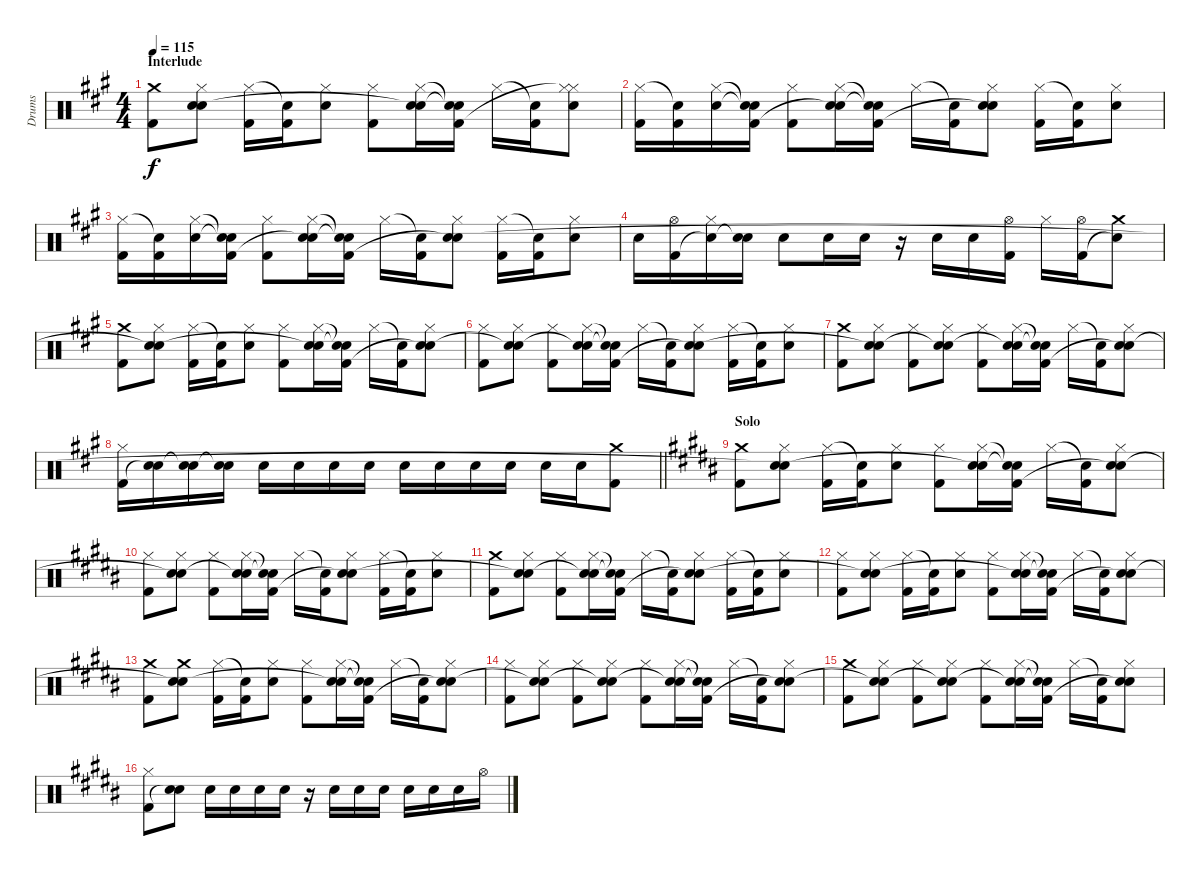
\track ("Drums" "Drums") {instrument percussion}
\staff {score}
\articulation defaults
\ts (4 4)
\section ("" "Interlude")
\tempo 115
\clef neutral
\ks a
("Crash medium (hit)" "Kick (hit) 2").8{dy f} ("Hi-Hat (closed)" "Electric Snare (hit)" "Snare (hit)"{t}).8 ("Hi-Hat (closed)" "Kick (hit) 2").16 ("Snare (hit)"{t} "Kick (hit) 2").16 ("Hi-Hat (closed)" "Electric Snare (hit)").8 ("Hi-Hat (closed)" "Kick (hit) 2").8 ("Hi-Hat (closed)" "Electric Snare (hit)" "Snare (hit)"{t}).16 ("Snare (hit)"{t} "Snare (hit)"{t} "Kick (hit) 2").16 "Hi-Hat (closed)".16 ("Snare (hit)"{t} "Kick (hit) 2").16 ("Hi-Hat (closed)" "Electric Snare (hit)" "Hi-Hat (closed)"{t}).8 |
("Hi-Hat (closed)" "Kick (hit) 2").16 ("Snare (hit)"{t} "Kick (hit) 2").16 ("Hi-Hat (closed)" "Electric Snare (hit)").16 ("Snare (hit)"{t} "Snare (hit)"{t} "Kick (hit) 2").16 ("Hi-Hat (closed)" "Kick (hit) 2").8 ("Hi-Hat (closed)" "Electric Snare (hit)" "Snare (hit)"{t}).16 ("Snare (hit)"{t} "Snare (hit)"{t} "Kick (hit) 2").16 "Hi-Hat (closed)".16 ("Snare (hit)"{t} "Kick (hit) 2").16 ("Hi-Hat (closed)" "Electric Snare (hit)" "Snare (hit)"{t}).8 ("Hi-Hat (closed)" "Kick (hit) 2").16 ("Snare (hit)"{t} "Kick (hit) 2").16 ("Hi-Hat (closed)" "Electric Snare (hit)").8 |
("Hi-Hat (closed)" "Kick (hit) 2").16 ("Snare (hit)"{t} "Kick (hit) 2").16 ("Hi-Hat (closed)" "Electric Snare (hit)").16 ("Snare (hit)"{t} "Snare (hit)"{t} "Kick (hit) 2").16 ("Hi-Hat (closed)" "Kick (hit) 2").8 ("Hi-Hat (closed)" "Electric Snare (hit)" "Snare (hit)"{t}).16 ("Snare (hit)"{t} "Snare (hit)"{t} "Kick (hit) 2").16 "Hi-Hat (closed)".16 ("Snare (hit)"{t} "Kick (hit) 2").16 ("Hi-Hat (closed)" "Electric Snare (hit)" "Snare (hit)"{t}).8 ("Hi-Hat (closed)" "Kick (hit) 2").16 ("Snare (hit)"{t} "Kick (hit) 2").16 ("Hi-Hat (closed)" "Electric Snare (hit)").8 |
"Electric Snare (hit)".16 ("Hi-Hat (open)" "Kick (hit) 2").16 ("Hi-Hat (closed)" "Snare (hit)"{t}).16 ("Electric Snare (hit)" "Snare (hit)"{t}).16 "Electric Snare (hit)".8 "Electric Snare (hit)".16 "Electric Snare (hit)".16 r.16 "Electric Snare (hit)".16 "Electric Snare (hit)".16 ("Hi-Hat (open)" "Kick (hit) 2").16 "Hi-Hat (closed)".16 ("Hi-Hat (open)" "Kick (hit) 2").16 ("Crash medium (hit)" "Snare (hit)"{t}).8 |
("Crash medium (hit)" "Kick (hit) 2").8 ("Hi-Hat (closed)" "Electric Snare (hit)" "Snare (hit)"{t}).8 ("Hi-Hat (closed)" "Kick (hit) 2").16 ("Snare (hit)"{t} "Kick (hit) 2").16 ("Hi-Hat (closed)" "Electric Snare (hit)").8 ("Hi-Hat (closed)" "Kick (hit) 2").8 ("Hi-Hat (closed)" "Electric Snare (hit)" "Snare (hit)"{t}).16 ("Snare (hit)"{t} "Snare (hit)"{t} "Kick (hit) 2").16 "Hi-Hat (closed)".16 ("Snare (hit)"{t} "Kick (hit) 2").16 ("Hi-Hat (closed)" "Electric Snare (hit)" "Snare (hit)"{t}).8 |
("Hi-Hat (closed)" "Kick (hit) 2").8 ("Hi-Hat (closed)" "Electric Snare (hit)" "Snare (hit)"{t}).8 ("Hi-Hat (closed)" "Kick (hit) 2").8 ("Hi-Hat (closed)" "Electric Snare (hit)" "Snare (hit)"{t}).16 ("Snare (hit)"{t} "Snare (hit)"{t} "Kick (hit) 2").16 "Hi-Hat (closed)".16 ("Snare (hit)"{t} "Kick (hit) 2").16 ("Hi-Hat (closed)" "Electric Snare (hit)" "Snare (hit)"{t}).8 ("Hi-Hat (closed)" "Kick (hit) 2").16 ("Snare (hit)"{t} "Kick (hit) 2").16 ("Hi-Hat (closed)" "Electric Snare (hit)").8 |
("Crash medium (hit)" "Kick (hit) 2").8 ("Hi-Hat (closed)" "Electric Snare (hit)" "Snare (hit)"{t}).8 ("Hi-Hat (closed)" "Kick (hit) 2").8 ("Hi-Hat (closed)" "Electric Snare (hit)" "Snare (hit)"{t}).8 ("Hi-Hat (closed)" "Kick (hit) 2").8 ("Hi-Hat (closed)" "Electric Snare (hit)" "Snare (hit)"{t}).16 ("Snare (hit)"{t} "Snare (hit)"{t} "Kick (hit) 2").16 "Hi-Hat (closed)".16 ("Snare (hit)"{t} "Kick (hit) 2").16 ("Hi-Hat (closed)" "Electric Snare (hit)" "Snare (hit)"{t}).8 |
\barLineRight lightlight
("Hi-Hat (closed)" "Kick (hit) 2").16 ("Electric Snare (hit)" "Snare (hit)"{t}).16 ("Electric Snare (hit)" "Snare (hit)"{t}).16 ("Electric Snare (hit)" "Snare (hit)"{t}).16 "Electric Snare (hit)".16 "Electric Snare (hit)".16 "Electric Snare (hit)".16 "Electric Snare (hit)".16 "Electric Snare (hit)".16 "Electric Snare (hit)".16 "Electric Snare (hit)".16 "Electric Snare (hit)".16 "Electric Snare (hit)".16 "Electric Snare (hit)".16 ("Crash medium (hit)" "Kick (hit) 2").8 |
\section ("" "Solo")
\ks b
("Crash medium (hit)" "Kick (hit) 2").8 ("Hi-Hat (closed)" "Electric Snare (hit)" "Snare (hit)"{t}).8 ("Hi-Hat (closed)" "Kick (hit) 2").16 ("Snare (hit)"{t} "Kick (hit) 2").16 ("Hi-Hat (closed)" "Electric Snare (hit)").8 ("Hi-Hat (closed)" "Kick (hit) 2").8 ("Hi-Hat (closed)" "Electric Snare (hit)" "Snare (hit)"{t}).16 ("Snare (hit)"{t} "Snare (hit)"{t} "Kick (hit) 2").16 "Hi-Hat (closed)".16 ("Snare (hit)"{t} "Kick (hit) 2").16 ("Hi-Hat (closed)" "Electric Snare (hit)" "Snare (hit)"{t}).8 |
("Hi-Hat (closed)" "Kick (hit) 2").8 ("Hi-Hat (closed)" "Electric Snare (hit)" "Snare (hit)"{t}).8 ("Hi-Hat (closed)" "Kick (hit) 2").8 ("Hi-Hat (closed)" "Electric Snare (hit)" "Snare (hit)"{t}).16 ("Snare (hit)"{t} "Snare (hit)"{t} "Kick (hit) 2").16 "Hi-Hat (closed)".16 ("Snare (hit)"{t} "Kick (hit) 2").16 ("Hi-Hat (closed)" "Electric Snare (hit)" "Snare (hit)"{t}).8 ("Hi-Hat (closed)" "Kick (hit) 2").16 ("Snare (hit)"{t} "Kick (hit) 2").16 ("Hi-Hat (closed)" "Electric Snare (hit)").8 |
("Crash medium (hit)" "Kick (hit) 2").8 ("Hi-Hat (closed)" "Electric Snare (hit)" "Snare (hit)"{t}).8 ("Hi-Hat (closed)" "Kick (hit) 2").8 ("Hi-Hat (closed)" "Electric Snare (hit)" "Snare (hit)"{t}).16 ("Snare (hit)"{t} "Snare (hit)"{t} "Kick (hit) 2").16 "Hi-Hat (closed)".16 ("Snare (hit)"{t} "Kick (hit) 2").16 ("Hi-Hat (closed)" "Electric Snare (hit)" "Snare (hit)"{t}).8 ("Hi-Hat (closed)" "Kick (hit) 2").16 ("Snare (hit)"{t} "Kick (hit) 2").16 ("Hi-Hat (closed)" "Electric Snare (hit)").8 |
("Hi-Hat (closed)" "Kick (hit) 2").8 ("Hi-Hat (closed)" "Electric Snare (hit)" "Snare (hit)"{t}).8 ("Hi-Hat (closed)" "Kick (hit) 2").16 ("Snare (hit)"{t} "Kick (hit) 2").16 ("Hi-Hat (closed)" "Electric Snare (hit)").8 ("Hi-Hat (closed)" "Kick (hit) 2").8 ("Hi-Hat (closed)" "Electric Snare (hit)" "Snare (hit)"{t}).16 ("Snare (hit)"{t} "Snare (hit)"{t} "Kick (hit) 2").16 "Hi-Hat (closed)".16 ("Snare (hit)"{t} "Kick (hit) 2").16 ("Hi-Hat (closed)" "Electric Snare (hit)" "Snare (hit)"{t}).8 |
("Crash medium (hit)" "Kick (hit) 2").8 ("Crash medium (hit)" "Electric Snare (hit)" "Snare (hit)"{t}).8 ("Hi-Hat (closed)" "Kick (hit) 2").16 ("Snare (hit)"{t} "Kick (hit) 2").16 ("Hi-Hat (closed)" "Electric Snare (hit)").8 ("Hi-Hat (closed)" "Kick (hit) 2").8 ("Hi-Hat (closed)" "Electric Snare (hit)" "Snare (hit)"{t}).16 ("Snare (hit)"{t} "Snare (hit)"{t} "Kick (hit) 2").16 "Hi-Hat (closed)".16 ("Snare (hit)"{t} "Kick (hit) 2").16 ("Hi-Hat (closed)" "Electric Snare (hit)" "Snare (hit)"{t}).8 |
("Hi-Hat (closed)" "Kick (hit) 2").8 ("Hi-Hat (closed)" "Electric Snare (hit)" "Snare (hit)"{t}).8 ("Hi-Hat (closed)" "Kick (hit) 2").8 ("Hi-Hat (closed)" "Electric Snare (hit)" "Snare (hit)"{t}).8 ("Hi-Hat (closed)" "Kick (hit) 2").8 ("Hi-Hat (closed)" "Electric Snare (hit)" "Snare (hit)"{t}).16 ("Snare (hit)"{t} "Snare (hit)"{t} "Kick (hit) 2").16 "Hi-Hat (closed)".16 ("Snare (hit)"{t} "Kick (hit) 2").16 ("Hi-Hat (closed)" "Electric Snare (hit)" "Snare (hit)"{t}).8 |
("Crash medium (hit)" "Kick (hit) 2").8 ("Hi-Hat (closed)" "Electric Snare (hit)" "Snare (hit)"{t}).8 ("Hi-Hat (closed)" "Kick (hit) 2").8 ("Hi-Hat (closed)" "Electric Snare (hit)" "Snare (hit)"{t}).8 ("Hi-Hat (closed)" "Kick (hit) 2").8 ("Hi-Hat (closed)" "Electric Snare (hit)" "Snare (hit)"{t}).16 ("Snare (hit)"{t} "Snare (hit)"{t} "Kick (hit) 2").16 "Hi-Hat (closed)".16 ("Snare (hit)"{t} "Kick (hit) 2").16 ("Hi-Hat (closed)" "Electric Snare (hit)" "Snare (hit)"{t}).8 |
("Hi-Hat (closed)" "Kick (hit) 2").8 ("Electric Snare (hit)" "Snare (hit)"{t}).8 "Electric Snare (hit)".16 "Electric Snare (hit)".16 "Electric Snare (hit)".16 "Electric Snare (hit)".16 r.16 "Electric Snare (hit)".16 "Electric Snare (hit)".16 "Electric Snare (hit)".16 "Electric Snare (hit)".16 "Electric Snare (hit)".16 "Electric Snare (hit)".16 "Hi-Hat (open)".16
